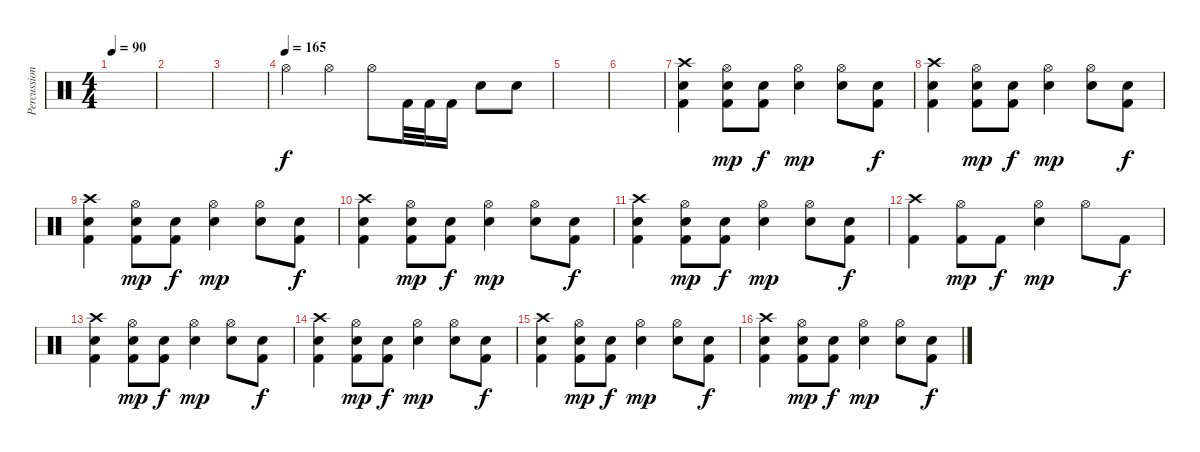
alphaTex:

\track ("Percussions" "Percussion") {instrument percussion}
\staff {score}
\articulation defaults
\ts (4 4)
\tempo 90
\clef neutral
\ks c
|
|
|
\tempo (165)
"Hi-Hat (open)".4 "Hi-Hat (open)".4 "Hi-Hat (open)".8 "Kick (hit) 2".32 "Kick (hit) 2".32 "Kick (hit) 2".16 "Electric Snare (hit)".8 "Electric Snare (hit)".8 |
|
|
("Crash high (hit)" "Electric Snare (hit)" "Kick (hit) 2").4 ("Hi-Hat (open)" "Electric Snare (hit)" "Kick (hit) 2").8{dy mp} ("Electric Snare (hit)" "Kick (hit) 2").8{dy f} ("Hi-Hat (open)" "Electric Snare (hit)").4{dy mp} ("Hi-Hat (open)" "Electric Snare (hit)").8 ("Electric Snare (hit)" "Kick (hit) 2").8{dy f} |
("Crash high (hit)" "Electric Snare (hit)" "Kick (hit) 2").4 ("Hi-Hat (open)" "Electric Snare (hit)" "Kick (hit) 2").8{dy mp} ("Electric Snare (hit)" "Kick (hit) 2").8{dy f} ("Hi-Hat (open)" "Electric Snare (hit)").4{dy mp} ("Hi-Hat (open)" "Electric Snare (hit)").8 ("Electric Snare (hit)" "Kick (hit) 2").8{dy f} |
("Crash high (hit)" "Electric Snare (hit)" "Kick (hit) 2").4 ("Hi-Hat (open)" "Electric Snare (hit)" "Kick (hit) 2").8{dy mp} ("Electric Snare (hit)" "Kick (hit) 2").8{dy f} ("Hi-Hat (open)" "Electric Snare (hit)").4{dy mp} ("Hi-Hat (open)" "Electric Snare (hit)").8 ("Electric Snare (hit)" "Kick (hit) 2").8{dy f} |
("Crash high (hit)" "Electric Snare (hit)" "Kick (hit) 2").4 ("Hi-Hat (open)" "Electric Snare (hit)" "Kick (hit) 2").8{dy mp} ("Electric Snare (hit)" "Kick (hit) 2").8{dy f} ("Hi-Hat (open)" "Electric Snare (hit)").4{dy mp} ("Hi-Hat (open)" "Electric Snare (hit)").8 ("Electric Snare (hit)" "Kick (hit) 2").8{dy f} |
("Crash high (hit)" "Electric Snare (hit)" "Kick (hit) 2").4 ("Hi-Hat (open)" "Electric Snare (hit)" "Kick (hit) 2").8{dy mp} ("Electric Snare (hit)" "Kick (hit) 2").8{dy f} ("Hi-Hat (open)" "Electric Snare (hit)").4{dy mp} ("Hi-Hat (open)" "Electric Snare (hit)").8 ("Electric Snare (hit)" "Kick (hit) 2").8{dy f} |
("Crash high (hit)" "Kick (hit) 2").4 ("Hi-Hat (open)" "Kick (hit) 2").8{dy mp} "Kick (hit) 2".8{dy f} ("Hi-Hat (open)" "Electric Snare (hit)").4{dy mp} "Hi-Hat (open)".8 "Kick (hit) 2".8{dy f} |
("Crash high (hit)" "Electric Snare (hit)" "Kick (hit) 2").4 ("Hi-Hat (open)" "Electric Snare (hit)" "Kick (hit) 2").8{dy mp} ("Electric Snare (hit)" "Kick (hit) 2").8{dy f} ("Hi-Hat (open)" "Electric Snare (hit)").4{dy mp} ("Hi-Hat (open)" "Electric Snare (hit)").8 ("Electric Snare (hit)" "Kick (hit) 2").8{dy f} |
("Crash high (hit)" "Electric Snare (hit)" "Kick (hit) 2").4 ("Hi-Hat (open)" "Electric Snare (hit)" "Kick (hit) 2").8{dy mp} ("Electric Snare (hit)" "Kick (hit) 2").8{dy f} ("Hi-Hat (open)" "Electric Snare (hit)").4{dy mp} ("Hi-Hat (open)" "Electric Snare (hit)").8 ("Electric Snare (hit)" "Kick (hit) 2").8{dy f} |
("Crash high (hit)" "Electric Snare (hit)" "Kick (hit) 2").4 ("Hi-Hat (open)" "Electric Snare (hit)" "Kick (hit) 2").8{dy mp} ("Electric Snare (hit)" "Kick (hit) 2").8{dy f} ("Hi-Hat (open)" "Electric Snare (hit)").4{dy mp} ("Hi-Hat (open)" "Electric Snare (hit)").8 ("Electric Snare (hit)" "Kick (hit) 2").8{dy f} |
("Crash high (hit)" "Electric Snare (hit)" "Kick (hit) 2").4 ("Hi-Hat (open)" "Electric Snare (hit)" "Kick (hit) 2").8{dy mp} ("Electric Snare (hit)" "Kick (hit) 2").8{dy f} ("Hi-Hat (open)" "Electric Snare (hit)").4{dy mp} ("Hi-Hat (open)" "Electric Snare (hit)").8 ("Electric Snare (hit)" "Kick (hit) 2").8{dy f}
